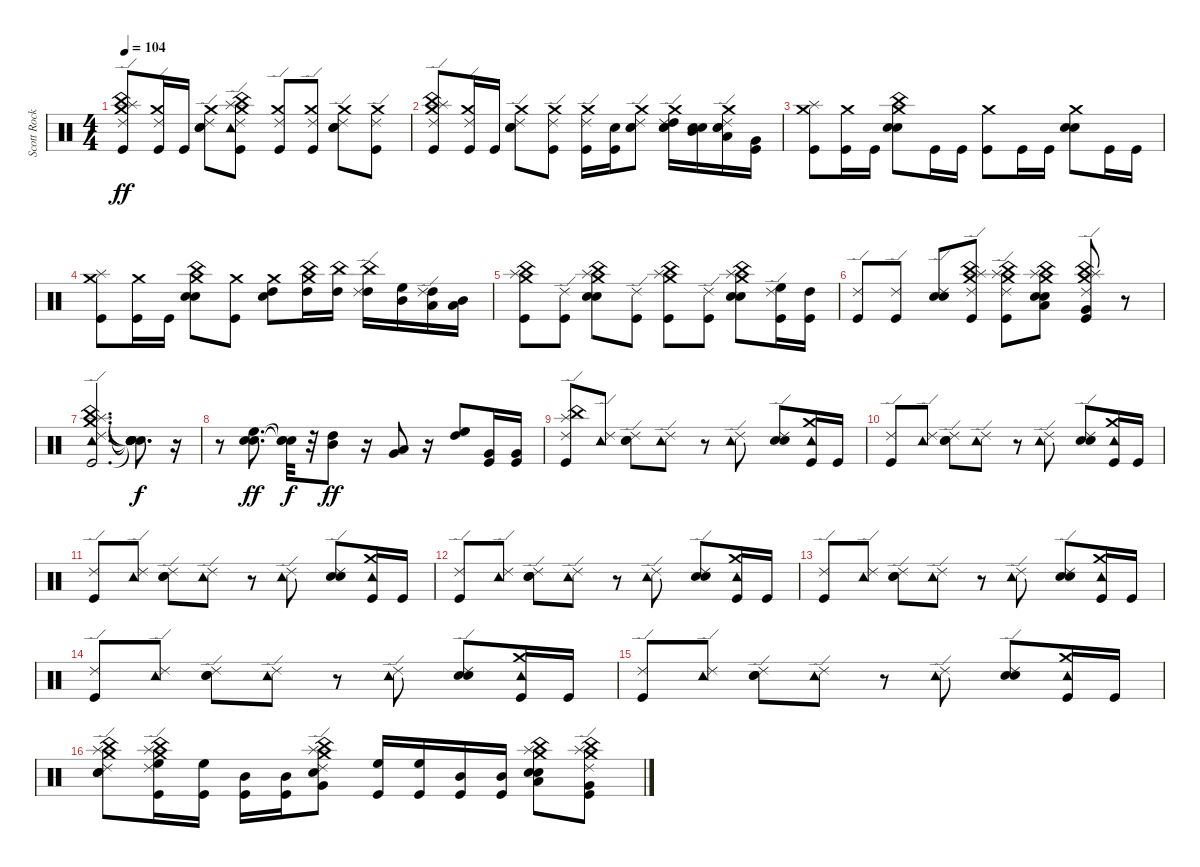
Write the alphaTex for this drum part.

\track ("Scott Rockenfield" "Scott Rock") {instrument percussion}
\staff {score}
\articulation defaults
\ts (4 4)
\tempo 104
\clef neutral
\ks c
("Kick (hit)" "China (hit)" "Splash (hit)" "Crash medium (hit)" "Ride (edge) 2").8{dy ff} ("Kick (hit)" "Crash medium (hit)" "Ride (edge) 2").16 "Kick (hit)".16 ("Snare (hit) 2" "Electric Snare (hit)" "Crash medium (hit)" "Ride (edge) 2").8 ("Kick (hit)" "China (hit)" "Tambourine (hit)" "Splash (hit)" "Crash medium (hit)" "Ride (edge) 2").8 ("Kick (hit)" "Crash medium (hit)" "Ride (edge) 2").8 ("Kick (hit)" "Crash medium (hit)" "Ride (edge) 2").8 ("Snare (hit) 2" "Electric Snare (hit)" "Crash medium (hit)" "Ride (edge) 2").8 ("Kick (hit)" "Crash medium (hit)" "Ride (edge) 2").8 |
("Kick (hit)" "China (hit)" "Splash (hit)" "Crash medium (hit)" "Ride (edge) 2").8 ("Kick (hit)" "Crash medium (hit)" "Ride (edge) 2").16 "Kick (hit)".16 ("Snare (hit) 2" "Electric Snare (hit)" "Crash medium (hit)" "Ride (edge) 2").8 ("Kick (hit)" "Crash medium (hit)" "Ride (edge) 2").8 ("Kick (hit)" "Crash medium (hit)" "Ride (edge) 2").16 ("Kick (hit)" "Snare (hit) 2").16 ("Snare (hit) 2" "Electric Snare (hit)" "Crash medium (hit)" "Ride (edge) 2").8 ("Snare (hit) 2" "Electric Snare (hit)" "High Tom (hit)" "Crash medium (hit)" "Ride (edge) 2").16 ("Snare (hit) 2" "Electric Snare (hit)" "Mid Tom (hit)").16 ("Snare (hit) 2" "Electric Snare (hit)" "Low Tom (hit)" "Crash medium (hit)" "Ride (edge) 2").16 ("Kick (hit)" "Very Low Tom (hit)").16 |
("Kick (hit)" "Splash (hit)" "Crash medium (hit)").8 ("Kick (hit)" "Crash medium (hit)").16 "Kick (hit)".16 ("Snare (hit) 2" "Electric Snare (hit)" "China (hit)" "Crash medium (hit)").8 "Kick (hit)".16 "Kick (hit)".16 ("Kick (hit)" "Crash medium (hit)").8 "Kick (hit)".16 "Kick (hit)".16 ("Snare (hit) 2" "Electric Snare (hit)" "Crash medium (hit)").8 "Kick (hit)".16 "Kick (hit)".16 |
("Kick (hit)" "Splash (hit)" "Crash medium (hit)").8 ("Kick (hit)" "Crash medium (hit)").16 "Kick (hit)".16 ("Snare (hit) 2" "Electric Snare (hit)" "China (hit)" "Crash medium (hit)").8 ("Kick (hit)" "Crash medium (hit)").8 ("Snare (hit) 2" "High Tom (hit)" "Crash medium (hit)").8 ("High Tom (hit)" "China (hit)" "Crash medium (hit)").16 ("High Tom (hit)" "China (hit)").16 ("High Tom (hit)" "China (hit)" "Ride (edge) 2").16 ("Mid Tom (hit)" "High Floor Tom (hit)").16 ("Low Tom (hit)" "High Tom (hit)" "Ride (edge) 2").16 ("Low Tom (hit)" "Mid Tom (hit)").16 |
("Kick (hit)" "China (hit)" "Splash (hit)" "Crash medium (hit)").8 ("Kick (hit)" "Ride (edge) 2").8 ("Snare (hit) 2" "Electric Snare (hit)" "China (hit)" "Splash (hit)" "Crash medium (hit)").8 ("Kick (hit)" "Ride (edge) 2").8 ("Kick (hit)" "China (hit)" "Splash (hit)" "Crash medium (hit)").8 ("Kick (hit)" "Ride (edge) 2").8 ("Snare (hit) 2" "Electric Snare (hit)" "China (hit)" "Splash (hit)" "Crash medium (hit)").8 ("Kick (hit)" "High Floor Tom (hit)" "Ride (edge) 2").16 ("Kick (hit)" "High Tom (hit)").16 |
("Kick (hit)" "Ride (edge) 2").8 ("Kick (hit)" "Ride (edge) 2").8 ("Snare (hit) 2" "Electric Snare (hit)" "Ride (edge) 2").8 ("Kick (hit)" "China (hit)" "Splash (hit)" "Crash medium (hit)" "Ride (edge) 2").8 ("Kick (hit)" "China (hit)" "Splash (hit)" "Crash medium (hit)" "Ride (edge) 2").8 ("Snare (hit) 2" "Electric Snare (hit)" "Low Tom (hit)" "China (hit)" "Splash (hit)" "Crash medium (hit)").8 ("Kick (hit)" "Very Low Tom (hit)" "China (hit)" "Splash (hit)" "Crash medium (hit)" "Ride (edge) 2").8 r.8 |
("Kick (hit)" "China (hit)" "Tambourine (hit)" "Splash (hit)" "Crash medium (hit)" "Ride (edge) 2").2{d} ("Snare (hit)"{t} "Snare (hit)"{t} "Snare (hit)"{t} "Snare (hit)"{t} "Snare (hit)"{t} "Snare (hit)"{t}).8{d dy f} r.16 |
r.8 ("Snare (hit) 2" "Electric Snare (hit)" "High Floor Tom (hit)").8{d dy ff} ("Snare (hit)"{t} "Snare (hit)"{t} "Snare (hit)"{t}).32{dy f} r.32 ("Mid Tom (hit)" "High Tom (hit)").8{dy ff} r.16 ("Very Low Tom (hit)" "Low Tom (hit)").8 r.16 ("High Tom (hit)" "High Floor Tom (hit)").8 ("Kick (hit)" "Very Low Tom (hit)").16 ("Kick (hit)" "Very Low Tom (hit)").16 |
("Kick (hit)" "China (hit)" "Splash (hit)" "Ride (edge) 2").8 ("Tambourine (hit)" "Ride (edge) 2").8 ("Snare (hit) 2" "Electric Snare (hit)" "Ride (edge) 2").8 ("Tambourine (hit)" "Ride (edge) 2").8 r.8 ("Tambourine (hit)" "Ride (edge) 2").8 ("Snare (hit) 2" "Electric Snare (hit)" "Ride (edge) 2").8 ("Kick (hit)" "Tambourine (hit)" "Crash medium (hit)").16 "Kick (hit)".16 |
("Kick (hit)" "Ride (edge) 2").8 ("Tambourine (hit)" "Ride (edge) 2").8 ("Snare (hit) 2" "Electric Snare (hit)" "Ride (edge) 2").8 ("Tambourine (hit)" "Ride (edge) 2").8 r.8 ("Tambourine (hit)" "Ride (edge) 2").8 ("Snare (hit) 2" "Electric Snare (hit)" "Ride (edge) 2").8 ("Kick (hit)" "Tambourine (hit)" "Crash medium (hit)").16 "Kick (hit)".16 |
("Kick (hit)" "Ride (edge) 2").8 ("Tambourine (hit)" "Ride (edge) 2").8 ("Snare (hit) 2" "Electric Snare (hit)" "Ride (edge) 2").8 ("Tambourine (hit)" "Ride (edge) 2").8 r.8 ("Tambourine (hit)" "Ride (edge) 2").8 ("Snare (hit) 2" "Electric Snare (hit)" "Ride (edge) 2").8 ("Kick (hit)" "Tambourine (hit)" "Crash medium (hit)").16 "Kick (hit)".16 |
("Kick (hit)" "Ride (edge) 2").8 ("Tambourine (hit)" "Ride (edge) 2").8 ("Snare (hit) 2" "Electric Snare (hit)" "Ride (edge) 2").8 ("Tambourine (hit)" "Ride (edge) 2").8 r.8 ("Tambourine (hit)" "Ride (edge) 2").8 ("Snare (hit) 2" "Electric Snare (hit)" "Ride (edge) 2").8 ("Kick (hit)" "Tambourine (hit)" "Crash medium (hit)").16 "Kick (hit)".16 |
("Kick (hit)" "Ride (edge) 2").8 ("Tambourine (hit)" "Ride (edge) 2").8 ("Snare (hit) 2" "Electric Snare (hit)" "Ride (edge) 2").8 ("Tambourine (hit)" "Ride (edge) 2").8 r.8 ("Tambourine (hit)" "Ride (edge) 2").8 ("Snare (hit) 2" "Electric Snare (hit)" "Ride (edge) 2").8 ("Kick (hit)" "Tambourine (hit)" "Crash medium (hit)").16 "Kick (hit)".16 |
("Kick (hit)" "Ride (edge) 2").8 ("Tambourine (hit)" "Ride (edge) 2").8 ("Snare (hit) 2" "Electric Snare (hit)" "Ride (edge) 2").8 ("Tambourine (hit)" "Ride (edge) 2").8 r.8 ("Tambourine (hit)" "Ride (edge) 2").8 ("Snare (hit) 2" "Electric Snare (hit)" "Ride (edge) 2").8 ("Kick (hit)" "Tambourine (hit)" "Crash medium (hit)").16 "Kick (hit)".16 |
("Kick (hit)" "Ride (edge) 2").8 ("Tambourine (hit)" "Ride (edge) 2").8 ("Snare (hit) 2" "Electric Snare (hit)" "Ride (edge) 2").8 ("Tambourine (hit)" "Ride (edge) 2").8 r.8 ("Tambourine (hit)" "Ride (edge) 2").8 ("Snare (hit) 2" "Electric Snare (hit)" "Ride (edge) 2").8 ("Kick (hit)" "Tambourine (hit)" "Crash medium (hit)").16 "Kick (hit)".16 |
("Snare (hit) 2" "Electric Snare (hit)" "China (hit)" "Splash (hit)" "Crash medium (hit)" "Ride (edge) 2").8 ("Kick (hit)" "High Floor Tom (hit)" "China (hit)" "Splash (hit)" "Crash medium (hit)" "Ride (edge) 2").16 ("Kick (hit)" "High Floor Tom (hit)").16 ("Kick (hit)" "Mid Tom (hit)").16 ("Kick (hit)" "Mid Tom (hit)").16 ("Electric Snare (hit)" "Very Low Tom (hit)" "China (hit)" "Splash (hit)" "Crash medium (hit)" "Ride (edge) 2").8 ("Kick (hit)" "High Floor Tom (hit)").16 ("Kick (hit)" "High Floor Tom (hit)").16 ("Kick (hit)" "Mid Tom (hit)").16 ("Kick (hit)" "Mid Tom (hit)").16 ("Snare (hit) 2" "Electric Snare (hit)" "Low Tom (hit)" "China (hit)" "Splash (hit)" "Crash medium (hit)").8 ("Kick (hit)" "Very Low Tom (hit)" "China (hit)" "Splash (hit)" "Crash medium (hit)" "Ride (edge) 2").8
